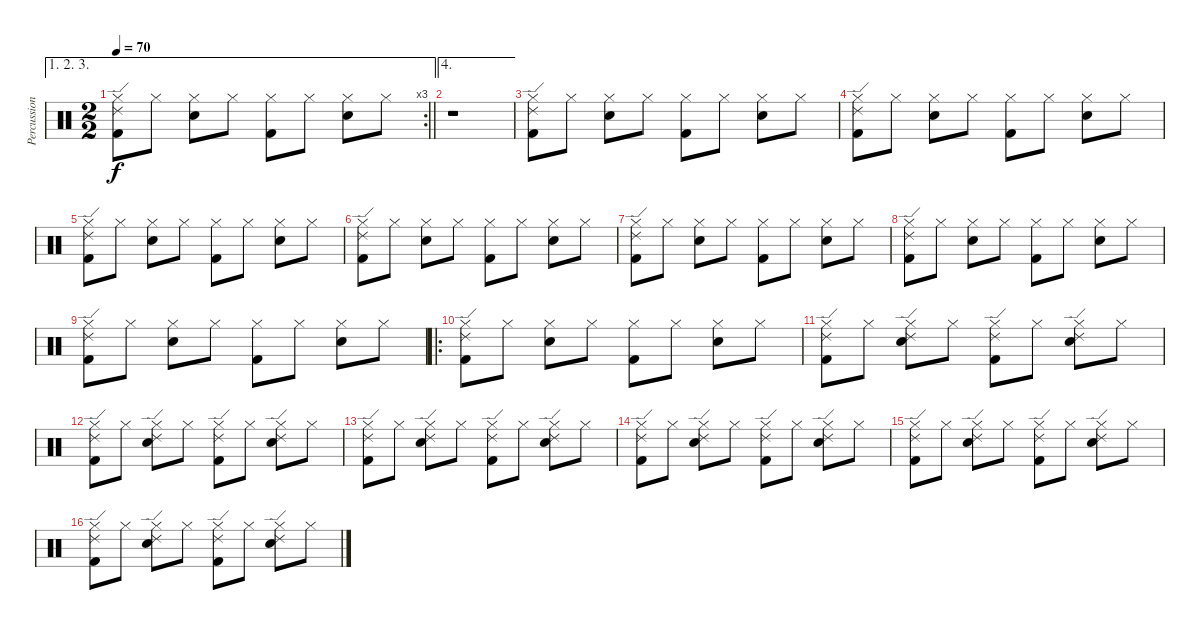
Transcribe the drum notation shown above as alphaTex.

\track ("Percussions" "Percussion") {instrument percussion}
\staff {score}
\articulation defaults
\ae (1 2 3)
\rc 3
\ts (2 2)
\tempo 70
\clef neutral
\barLineRight lightlight
\ks c
("Kick (hit) 2" "Hi-Hat (closed)" "Ride (edge) 2").8{dy f} "Hi-Hat (closed)".8 ("Hi-Hat (closed)" "Electric Snare (hit)").8 "Hi-Hat (closed)".8 ("Kick (hit) 2" "Hi-Hat (closed)").8 "Hi-Hat (closed)".8 ("Hi-Hat (closed)" "Electric Snare (hit)").8 "Hi-Hat (closed)".8 |
\ae 4
r.1 |
("Kick (hit) 2" "Hi-Hat (closed)" "Ride (edge) 2").8 "Hi-Hat (closed)".8 ("Hi-Hat (closed)" "Electric Snare (hit)").8 "Hi-Hat (closed)".8 ("Kick (hit) 2" "Hi-Hat (closed)").8 "Hi-Hat (closed)".8 ("Hi-Hat (closed)" "Electric Snare (hit)").8 "Hi-Hat (closed)".8 |
("Kick (hit) 2" "Hi-Hat (closed)" "Ride (edge) 2").8 "Hi-Hat (closed)".8 ("Hi-Hat (closed)" "Electric Snare (hit)").8 "Hi-Hat (closed)".8 ("Kick (hit) 2" "Hi-Hat (closed)").8 "Hi-Hat (closed)".8 ("Hi-Hat (closed)" "Electric Snare (hit)").8 "Hi-Hat (closed)".8 |
("Kick (hit) 2" "Hi-Hat (closed)" "Ride (edge) 2").8 "Hi-Hat (closed)".8 ("Hi-Hat (closed)" "Electric Snare (hit)").8 "Hi-Hat (closed)".8 ("Kick (hit) 2" "Hi-Hat (closed)").8 "Hi-Hat (closed)".8 ("Hi-Hat (closed)" "Electric Snare (hit)").8 "Hi-Hat (closed)".8 |
("Kick (hit) 2" "Hi-Hat (closed)" "Ride (edge) 2").8 "Hi-Hat (closed)".8 ("Hi-Hat (closed)" "Electric Snare (hit)").8 "Hi-Hat (closed)".8 ("Kick (hit) 2" "Hi-Hat (closed)").8 "Hi-Hat (closed)".8 ("Hi-Hat (closed)" "Electric Snare (hit)").8 "Hi-Hat (closed)".8 |
("Kick (hit) 2" "Hi-Hat (closed)" "Ride (edge) 2").8 "Hi-Hat (closed)".8 ("Hi-Hat (closed)" "Electric Snare (hit)").8 "Hi-Hat (closed)".8 ("Kick (hit) 2" "Hi-Hat (closed)").8 "Hi-Hat (closed)".8 ("Hi-Hat (closed)" "Electric Snare (hit)").8 "Hi-Hat (closed)".8 |
("Kick (hit) 2" "Hi-Hat (closed)" "Ride (edge) 2").8 "Hi-Hat (closed)".8 ("Hi-Hat (closed)" "Electric Snare (hit)").8 "Hi-Hat (closed)".8 ("Kick (hit) 2" "Hi-Hat (closed)").8 "Hi-Hat (closed)".8 ("Hi-Hat (closed)" "Electric Snare (hit)").8 "Hi-Hat (closed)".8 |
("Kick (hit) 2" "Hi-Hat (closed)" "Ride (edge) 2").8 "Hi-Hat (closed)".8 ("Hi-Hat (closed)" "Electric Snare (hit)").8 "Hi-Hat (closed)".8 ("Kick (hit) 2" "Hi-Hat (closed)").8 "Hi-Hat (closed)".8 ("Hi-Hat (closed)" "Electric Snare (hit)").8 "Hi-Hat (closed)".8 |
\ro
("Kick (hit) 2" "Hi-Hat (closed)" "Ride (edge) 2").8 "Hi-Hat (closed)".8 ("Hi-Hat (closed)" "Electric Snare (hit)").8 "Hi-Hat (closed)".8 ("Kick (hit) 2" "Hi-Hat (closed)").8 "Hi-Hat (closed)".8 ("Hi-Hat (closed)" "Electric Snare (hit)").8 "Hi-Hat (closed)".8 |
("Kick (hit) 2" "Hi-Hat (closed)" "Ride (edge) 2").8 "Hi-Hat (closed)".8 ("Hi-Hat (closed)" "Electric Snare (hit)" "Ride (edge) 2").8 "Hi-Hat (closed)".8 ("Kick (hit) 2" "Hi-Hat (closed)" "Ride (edge) 2").8 "Hi-Hat (closed)".8 ("Hi-Hat (closed)" "Electric Snare (hit)" "Ride (edge) 2").8 "Hi-Hat (closed)".8 |
("Kick (hit) 2" "Hi-Hat (closed)" "Ride (edge) 2").8 "Hi-Hat (closed)".8 ("Hi-Hat (closed)" "Electric Snare (hit)" "Ride (edge) 2").8 "Hi-Hat (closed)".8 ("Kick (hit) 2" "Hi-Hat (closed)" "Ride (edge) 2").8 "Hi-Hat (closed)".8 ("Hi-Hat (closed)" "Electric Snare (hit)" "Ride (edge) 2").8 "Hi-Hat (closed)".8 |
("Kick (hit) 2" "Hi-Hat (closed)" "Ride (edge) 2").8 "Hi-Hat (closed)".8 ("Hi-Hat (closed)" "Electric Snare (hit)" "Ride (edge) 2").8 "Hi-Hat (closed)".8 ("Kick (hit) 2" "Hi-Hat (closed)" "Ride (edge) 2").8 "Hi-Hat (closed)".8 ("Hi-Hat (closed)" "Electric Snare (hit)" "Ride (edge) 2").8 "Hi-Hat (closed)".8 |
("Kick (hit) 2" "Hi-Hat (closed)" "Ride (edge) 2").8 "Hi-Hat (closed)".8 ("Hi-Hat (closed)" "Electric Snare (hit)" "Ride (edge) 2").8 "Hi-Hat (closed)".8 ("Kick (hit) 2" "Hi-Hat (closed)" "Ride (edge) 2").8 "Hi-Hat (closed)".8 ("Hi-Hat (closed)" "Electric Snare (hit)" "Ride (edge) 2").8 "Hi-Hat (closed)".8 |
("Kick (hit) 2" "Hi-Hat (closed)" "Ride (edge) 2").8 "Hi-Hat (closed)".8 ("Hi-Hat (closed)" "Electric Snare (hit)" "Ride (edge) 2").8 "Hi-Hat (closed)".8 ("Kick (hit) 2" "Hi-Hat (closed)" "Ride (edge) 2").8 "Hi-Hat (closed)".8 ("Hi-Hat (closed)" "Electric Snare (hit)" "Ride (edge) 2").8 "Hi-Hat (closed)".8 |
("Kick (hit) 2" "Hi-Hat (closed)" "Ride (edge) 2").8 "Hi-Hat (closed)".8 ("Hi-Hat (closed)" "Electric Snare (hit)" "Ride (edge) 2").8 "Hi-Hat (closed)".8 ("Kick (hit) 2" "Hi-Hat (closed)" "Ride (edge) 2").8 "Hi-Hat (closed)".8 ("Hi-Hat (closed)" "Electric Snare (hit)" "Ride (edge) 2").8 "Hi-Hat (closed)".8
